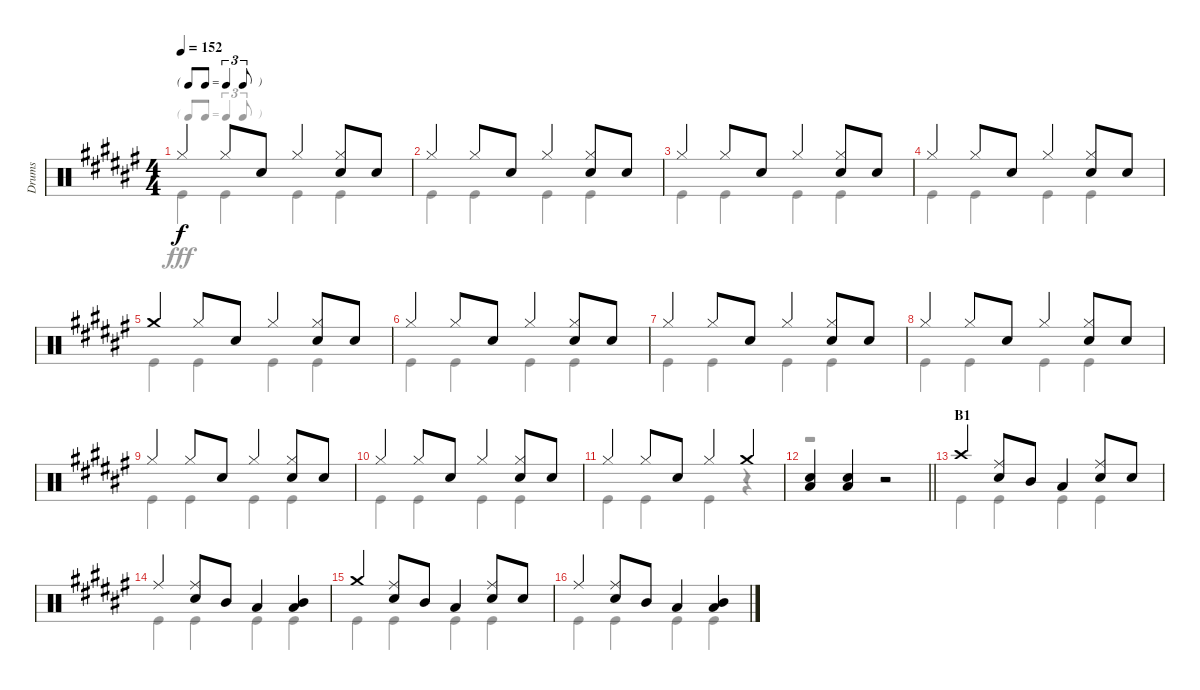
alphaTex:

\track ("Drums" "Drums") {instrument percussion}
\staff {score}
\articulation defaults
\voice
\ts (4 4)
\tf triplet8th
\tempo 152
\clef neutral
\ks f# "Hi-Hat (closed)".4{dy f} "Hi-Hat (closed)".8 "Snare (hit) 2".8 "Hi-Hat (closed)".4
("Hi-Hat (closed)" "Snare (hit) 2").8 "Snare (hit) 2".8 |
"Hi-Hat (closed)".4 "Hi-Hat (closed)".8 "Snare (hit) 2".8 "Hi-Hat (closed)".4 ("Hi-Hat (closed)" "Snare (hit) 2").8 "Snare (hit) 2".8 |
"Hi-Hat (closed)".4 "Hi-Hat (closed)".8 "Snare (hit) 2".8 "Hi-Hat (closed)".4 ("Hi-Hat (closed)" "Snare (hit) 2").8 "Snare (hit) 2".8 |
"Hi-Hat (closed)".4 "Hi-Hat (closed)".8 "Snare (hit) 2".8 "Hi-Hat (closed)".4 ("Hi-Hat (closed)" "Snare (hit) 2").8 "Snare (hit) 2".8 |
"Crash medium (hit)".4 "Hi-Hat (closed)".8 "Snare (hit) 2".8 "Hi-Hat (closed)".4 ("Hi-Hat (closed)" "Snare (hit) 2").8 "Snare (hit) 2".8 |
"Hi-Hat (closed)".4 "Hi-Hat (closed)".8 "Snare (hit) 2".8 "Hi-Hat (closed)".4 ("Hi-Hat (closed)" "Snare (hit) 2").8 "Snare (hit) 2".8 |
"Hi-Hat (closed)".4 "Hi-Hat (closed)".8 "Snare (hit) 2".8 "Hi-Hat (closed)".4 ("Hi-Hat (closed)" "Snare (hit) 2").8 "Snare (hit) 2".8 |
"Hi-Hat (closed)".4 "Hi-Hat (closed)".8 "Snare (hit) 2".8 "Hi-Hat (closed)".4 ("Hi-Hat (closed)" "Snare (hit) 2").8 "Snare (hit) 2".8 |
"Hi-Hat (closed)".4 "Hi-Hat (closed)".8 "Snare (hit) 2".8 "Hi-Hat (closed)".4 ("Hi-Hat (closed)" "Snare (hit) 2").8 "Snare (hit) 2".8 |
"Hi-Hat (closed)".4 "Hi-Hat (closed)".8 "Snare (hit) 2".8 "Hi-Hat (closed)".4 ("Hi-Hat (closed)" "Snare (hit) 2").8 "Snare (hit) 2".8 |
"Hi-Hat (closed)".4 "Hi-Hat (closed)".8 "Snare (hit) 2".8 "Hi-Hat (closed)".4 "Crash medium (hit)".4 |
\barLineRight lightlight
("Snare (hit) 2" "Low Tom (hit)").4 ("Snare (hit) 2" "Low Tom (hit)").4 r.2 |
\section ("" "B1")
"Crash high (hit)".4 ("Ride (middle)" "Snare (hit) 2").8 "Mid Tom (hit)".8 "Low Tom (hit)".4 ("Ride (middle)" "Snare (hit) 2").8 "Snare (hit) 2".8 |
"Ride (middle)".4 ("Ride (middle)" "Snare (hit) 2").8 "Mid Tom (hit)".8 "Low Tom (hit)".4 ("Mid Tom (hit)" "Low Tom (hit)").4 |
"Crash medium (hit)".4 ("Ride (middle)" "Snare (hit) 2").8 "Mid Tom (hit)".8 "Low Tom (hit)".4 ("Ride (middle)" "Snare (hit) 2").8 "Snare (hit) 2".8 |
"Ride (middle)".4 ("Ride (middle)" "Snare (hit) 2").8 "Mid Tom (hit)".8 "Low Tom (hit)".4 ("Mid Tom (hit)" "Low Tom (hit)").4
\voice
\clef neutral
\ottava regular
\simile none
\ks f# "Kick (hit)".4{dy fff} "Kick (hit)".4 "Kick (hit)".4 "Kick (hit)".4
|
"Kick (hit)".4 "Kick (hit)".4 "Kick (hit)".4 "Kick (hit)".4 |
"Kick (hit)".4 "Kick (hit)".4 "Kick (hit)".4 "Kick (hit)".4 |
"Kick (hit)".4 "Kick (hit)".4 "Kick (hit)".4 "Kick (hit)".4 |
"Kick (hit)".4 "Kick (hit)".4 "Kick (hit)".4 "Kick (hit)".4 |
"Kick (hit)".4 "Kick (hit)".4 "Kick (hit)".4 "Kick (hit)".4 |
"Kick (hit)".4 "Kick (hit)".4 "Kick (hit)".4 "Kick (hit)".4 |
"Kick (hit)".4 "Kick (hit)".4 "Kick (hit)".4 "Kick (hit)".4 |
"Kick (hit)".4 "Kick (hit)".4 "Kick (hit)".4 "Kick (hit)".4 |
"Kick (hit)".4 "Kick (hit)".4 "Kick (hit)".4 "Kick (hit)".4 |
"Kick (hit)".4 "Kick (hit)".4 "Kick (hit)".4 r.4 |
\barLineRight lightlight
r.1 |
"Kick (hit)".4 "Kick (hit)".4 "Kick (hit)".4 "Kick (hit)".4 |
"Kick (hit)".4 "Kick (hit)".4 "Kick (hit)".4 "Kick (hit)".4 |
"Kick (hit)".4 "Kick (hit)".4 "Kick (hit)".4 "Kick (hit)".4 |
"Kick (hit)".4 "Kick (hit)".4 "Kick (hit)".4 "Kick (hit)".4
